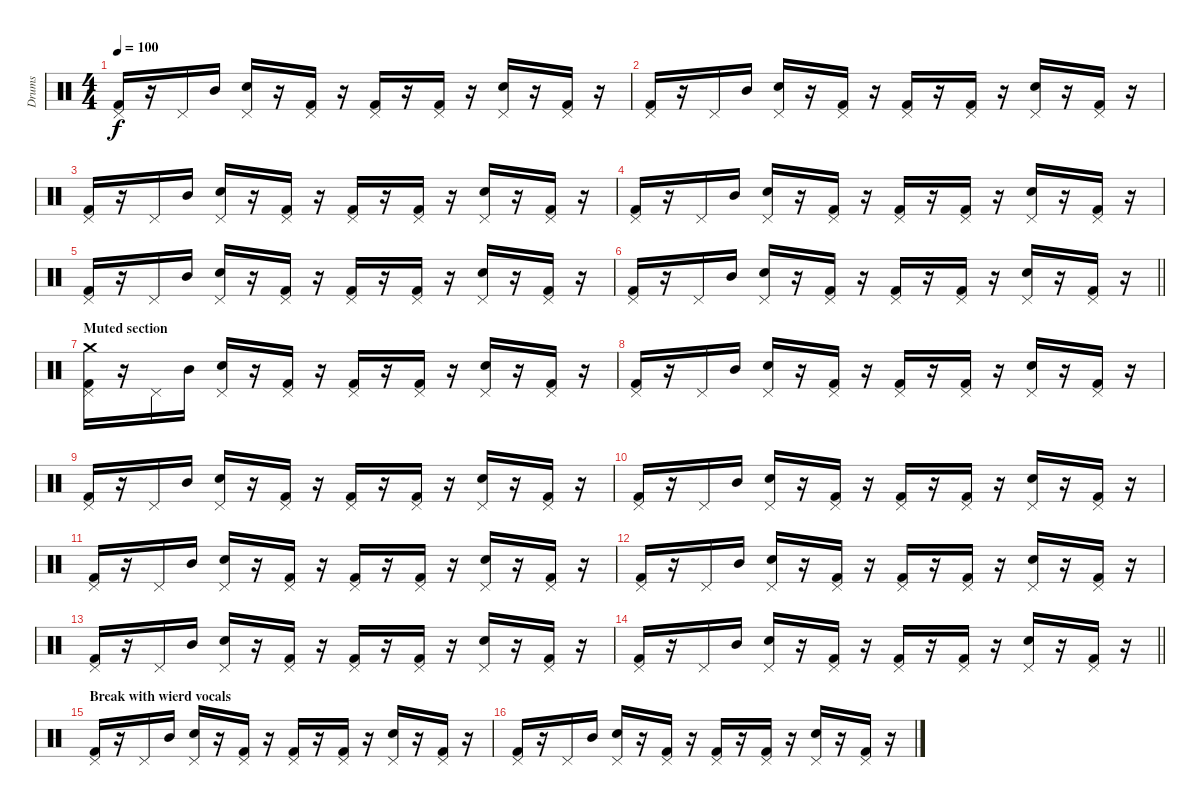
\track ("Drums" "Drums") {instrument percussion}
\staff {score}
\articulation defaults
\ts (4 4)
\tempo 100
\clef neutral
\ks c
("Kick (hit) 2" "Pedal Hi-Hat (hit)").16{dy f} r.16 "Pedal Hi-Hat (hit)".16 "Mid Tom (hit)".16 ("Pedal Hi-Hat (hit)" "Electric Snare (hit)").16 r.16 ("Kick (hit) 2" "Pedal Hi-Hat (hit)").16 r.16 ("Kick (hit) 2" "Pedal Hi-Hat (hit)").16 r.16 ("Kick (hit) 2" "Pedal Hi-Hat (hit)").16 r.16 ("Pedal Hi-Hat (hit)" "Electric Snare (hit)").16 r.16 ("Kick (hit) 2" "Pedal Hi-Hat (hit)").16 r.16 |
("Kick (hit) 2" "Pedal Hi-Hat (hit)").16 r.16 "Pedal Hi-Hat (hit)".16 "Mid Tom (hit)".16 ("Pedal Hi-Hat (hit)" "Electric Snare (hit)").16 r.16 ("Kick (hit) 2" "Pedal Hi-Hat (hit)").16 r.16 ("Kick (hit) 2" "Pedal Hi-Hat (hit)").16 r.16 ("Kick (hit) 2" "Pedal Hi-Hat (hit)").16 r.16 ("Pedal Hi-Hat (hit)" "Electric Snare (hit)").16 r.16 ("Kick (hit) 2" "Pedal Hi-Hat (hit)").16 r.16 |
("Kick (hit) 2" "Pedal Hi-Hat (hit)").16 r.16 "Pedal Hi-Hat (hit)".16 "Mid Tom (hit)".16 ("Pedal Hi-Hat (hit)" "Electric Snare (hit)").16 r.16 ("Kick (hit) 2" "Pedal Hi-Hat (hit)").16 r.16 ("Kick (hit) 2" "Pedal Hi-Hat (hit)").16 r.16 ("Kick (hit) 2" "Pedal Hi-Hat (hit)").16 r.16 ("Pedal Hi-Hat (hit)" "Electric Snare (hit)").16 r.16 ("Kick (hit) 2" "Pedal Hi-Hat (hit)").16 r.16 |
("Kick (hit) 2" "Pedal Hi-Hat (hit)").16 r.16 "Pedal Hi-Hat (hit)".16 "Mid Tom (hit)".16 ("Pedal Hi-Hat (hit)" "Electric Snare (hit)").16 r.16 ("Kick (hit) 2" "Pedal Hi-Hat (hit)").16 r.16 ("Kick (hit) 2" "Pedal Hi-Hat (hit)").16 r.16 ("Kick (hit) 2" "Pedal Hi-Hat (hit)").16 r.16 ("Pedal Hi-Hat (hit)" "Electric Snare (hit)").16 r.16 ("Kick (hit) 2" "Pedal Hi-Hat (hit)").16 r.16 |
("Kick (hit) 2" "Pedal Hi-Hat (hit)").16 r.16 "Pedal Hi-Hat (hit)".16 "Mid Tom (hit)".16 ("Pedal Hi-Hat (hit)" "Electric Snare (hit)").16 r.16 ("Kick (hit) 2" "Pedal Hi-Hat (hit)").16 r.16 ("Kick (hit) 2" "Pedal Hi-Hat (hit)").16 r.16 ("Kick (hit) 2" "Pedal Hi-Hat (hit)").16 r.16 ("Pedal Hi-Hat (hit)" "Electric Snare (hit)").16 r.16 ("Kick (hit) 2" "Pedal Hi-Hat (hit)").16 r.16 |
\barLineRight lightlight
("Kick (hit) 2" "Pedal Hi-Hat (hit)").16 r.16 "Pedal Hi-Hat (hit)".16 "Mid Tom (hit)".16 ("Pedal Hi-Hat (hit)" "Electric Snare (hit)").16 r.16 ("Kick (hit) 2" "Pedal Hi-Hat (hit)").16 r.16 ("Kick (hit) 2" "Pedal Hi-Hat (hit)").16 r.16 ("Kick (hit) 2" "Pedal Hi-Hat (hit)").16 r.16 ("Pedal Hi-Hat (hit)" "Electric Snare (hit)").16 r.16 ("Kick (hit) 2" "Pedal Hi-Hat (hit)").16 r.16 |
\section ("" "Muted section")
("Kick (hit) 2" "Pedal Hi-Hat (hit)" "Crash medium (hit)").16 r.16 "Pedal Hi-Hat (hit)".16 "Mid Tom (hit)".16 ("Pedal Hi-Hat (hit)" "Electric Snare (hit)").16 r.16 ("Kick (hit) 2" "Pedal Hi-Hat (hit)").16 r.16 ("Kick (hit) 2" "Pedal Hi-Hat (hit)").16 r.16 ("Kick (hit) 2" "Pedal Hi-Hat (hit)").16 r.16 ("Pedal Hi-Hat (hit)" "Electric Snare (hit)").16 r.16 ("Kick (hit) 2" "Pedal Hi-Hat (hit)").16 r.16 |
("Kick (hit) 2" "Pedal Hi-Hat (hit)").16 r.16 "Pedal Hi-Hat (hit)".16 "Mid Tom (hit)".16 ("Pedal Hi-Hat (hit)" "Electric Snare (hit)").16 r.16 ("Kick (hit) 2" "Pedal Hi-Hat (hit)").16 r.16 ("Kick (hit) 2" "Pedal Hi-Hat (hit)").16 r.16 ("Kick (hit) 2" "Pedal Hi-Hat (hit)").16 r.16 ("Pedal Hi-Hat (hit)" "Electric Snare (hit)").16 r.16 ("Kick (hit) 2" "Pedal Hi-Hat (hit)").16 r.16 |
("Kick (hit) 2" "Pedal Hi-Hat (hit)").16 r.16 "Pedal Hi-Hat (hit)".16 "Mid Tom (hit)".16 ("Pedal Hi-Hat (hit)" "Electric Snare (hit)").16 r.16 ("Kick (hit) 2" "Pedal Hi-Hat (hit)").16 r.16 ("Kick (hit) 2" "Pedal Hi-Hat (hit)").16 r.16 ("Kick (hit) 2" "Pedal Hi-Hat (hit)").16 r.16 ("Pedal Hi-Hat (hit)" "Electric Snare (hit)").16 r.16 ("Kick (hit) 2" "Pedal Hi-Hat (hit)").16 r.16 |
("Kick (hit) 2" "Pedal Hi-Hat (hit)").16 r.16 "Pedal Hi-Hat (hit)".16 "Mid Tom (hit)".16 ("Pedal Hi-Hat (hit)" "Electric Snare (hit)").16 r.16 ("Kick (hit) 2" "Pedal Hi-Hat (hit)").16 r.16 ("Kick (hit) 2" "Pedal Hi-Hat (hit)").16 r.16 ("Kick (hit) 2" "Pedal Hi-Hat (hit)").16 r.16 ("Pedal Hi-Hat (hit)" "Electric Snare (hit)").16 r.16 ("Kick (hit) 2" "Pedal Hi-Hat (hit)").16 r.16 |
("Kick (hit) 2" "Pedal Hi-Hat (hit)").16 r.16 "Pedal Hi-Hat (hit)".16 "Mid Tom (hit)".16 ("Pedal Hi-Hat (hit)" "Electric Snare (hit)").16 r.16 ("Kick (hit) 2" "Pedal Hi-Hat (hit)").16 r.16 ("Kick (hit) 2" "Pedal Hi-Hat (hit)").16 r.16 ("Kick (hit) 2" "Pedal Hi-Hat (hit)").16 r.16 ("Pedal Hi-Hat (hit)" "Electric Snare (hit)").16 r.16 ("Kick (hit) 2" "Pedal Hi-Hat (hit)").16 r.16 |
("Kick (hit) 2" "Pedal Hi-Hat (hit)").16 r.16 "Pedal Hi-Hat (hit)".16 "Mid Tom (hit)".16 ("Pedal Hi-Hat (hit)" "Electric Snare (hit)").16 r.16 ("Kick (hit) 2" "Pedal Hi-Hat (hit)").16 r.16 ("Kick (hit) 2" "Pedal Hi-Hat (hit)").16 r.16 ("Kick (hit) 2" "Pedal Hi-Hat (hit)").16 r.16 ("Pedal Hi-Hat (hit)" "Electric Snare (hit)").16 r.16 ("Kick (hit) 2" "Pedal Hi-Hat (hit)").16 r.16 |
("Kick (hit) 2" "Pedal Hi-Hat (hit)").16 r.16 "Pedal Hi-Hat (hit)".16 "Mid Tom (hit)".16 ("Pedal Hi-Hat (hit)" "Electric Snare (hit)").16 r.16 ("Kick (hit) 2" "Pedal Hi-Hat (hit)").16 r.16 ("Kick (hit) 2" "Pedal Hi-Hat (hit)").16 r.16 ("Kick (hit) 2" "Pedal Hi-Hat (hit)").16 r.16 ("Pedal Hi-Hat (hit)" "Electric Snare (hit)").16 r.16 ("Kick (hit) 2" "Pedal Hi-Hat (hit)").16 r.16 |
\barLineRight lightlight
("Kick (hit) 2" "Pedal Hi-Hat (hit)").16 r.16 "Pedal Hi-Hat (hit)".16 "Mid Tom (hit)".16 ("Pedal Hi-Hat (hit)" "Electric Snare (hit)").16 r.16 ("Kick (hit) 2" "Pedal Hi-Hat (hit)").16 r.16 ("Kick (hit) 2" "Pedal Hi-Hat (hit)").16 r.16 ("Kick (hit) 2" "Pedal Hi-Hat (hit)").16 r.16 ("Pedal Hi-Hat (hit)" "Electric Snare (hit)").16 r.16 ("Kick (hit) 2" "Pedal Hi-Hat (hit)").16 r.16 |
\section ("" "Break with wierd vocals")
("Kick (hit) 2" "Pedal Hi-Hat (hit)").16{volume 8} r.16 "Pedal Hi-Hat (hit)".16 "Mid Tom (hit)".16 ("Pedal Hi-Hat (hit)" "Electric Snare (hit)").16 r.16 ("Kick (hit) 2" "Pedal Hi-Hat (hit)").16 r.16 ("Kick (hit) 2" "Pedal Hi-Hat (hit)").16 r.16 ("Kick (hit) 2" "Pedal Hi-Hat (hit)").16 r.16 ("Pedal Hi-Hat (hit)" "Electric Snare (hit)").16 r.16 ("Kick (hit) 2" "Pedal Hi-Hat (hit)").16 r.16 |
("Kick (hit) 2" "Pedal Hi-Hat (hit)").16{volume 6} r.16 "Pedal Hi-Hat (hit)".16 "Mid Tom (hit)".16 ("Pedal Hi-Hat (hit)" "Electric Snare (hit)").16 r.16 ("Kick (hit) 2" "Pedal Hi-Hat (hit)").16 r.16 ("Kick (hit) 2" "Pedal Hi-Hat (hit)").16 r.16 ("Kick (hit) 2" "Pedal Hi-Hat (hit)").16 r.16 ("Pedal Hi-Hat (hit)" "Electric Snare (hit)").16 r.16 ("Kick (hit) 2" "Pedal Hi-Hat (hit)").16 r.16
